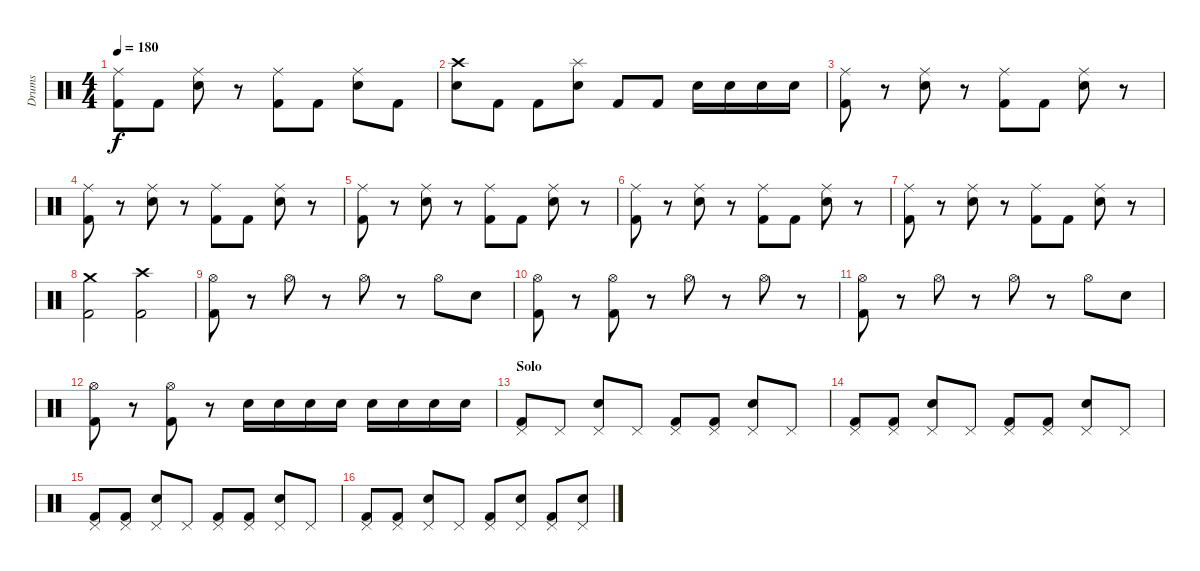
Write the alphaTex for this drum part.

\track ("Drums" "Drums") {instrument percussion}
\staff {score}
\articulation defaults
\ts (4 4)
\tempo 180
\clef neutral
\ks c
("Ride (middle)" "Kick (hit) 2").8{dy f} "Kick (hit) 2".8 ("Ride (middle)" "Snare (hit) 2").8 r.8 ("Ride (middle)" "Kick (hit) 2").8 "Kick (hit) 2".8 ("Ride (middle)" "Snare (hit) 2").8 "Kick (hit) 2".8 |
("Crash high (hit)" "Snare (hit) 2").8 "Kick (hit) 2".8 "Kick (hit) 2".8 ("Splash (hit)" "Snare (hit) 2").8 "Kick (hit) 2".8 "Kick (hit) 2".8 "Snare (hit) 2".16 "Snare (hit) 2".16 "Snare (hit) 2".16 "Snare (hit) 2".16 |
("Ride (middle)" "Kick (hit) 2").8 r.8 ("Ride (middle)" "Snare (hit) 2").8 r.8 ("Ride (middle)" "Kick (hit) 2").8 "Kick (hit) 2".8 ("Ride (middle)" "Snare (hit) 2").8 r.8 |
("Ride (middle)" "Kick (hit) 2").8 r.8 ("Ride (middle)" "Snare (hit) 2").8 r.8 ("Ride (middle)" "Kick (hit) 2").8 "Kick (hit) 2".8 ("Ride (middle)" "Snare (hit) 2").8 r.8 |
("Ride (middle)" "Kick (hit) 2").8 r.8 ("Ride (middle)" "Snare (hit) 2").8 r.8 ("Ride (middle)" "Kick (hit) 2").8 "Kick (hit) 2".8 ("Ride (middle)" "Snare (hit) 2").8 r.8 |
("Ride (middle)" "Kick (hit) 2").8 r.8 ("Ride (middle)" "Snare (hit) 2").8 r.8 ("Ride (middle)" "Kick (hit) 2").8 "Kick (hit) 2".8 ("Ride (middle)" "Snare (hit) 2").8 r.8 |
("Ride (middle)" "Kick (hit) 2").8 r.8 ("Ride (middle)" "Snare (hit) 2").8 r.8 ("Ride (middle)" "Kick (hit) 2").8 "Kick (hit) 2".8 ("Ride (middle)" "Snare (hit) 2").8 r.8 |
("Crash medium (hit)" "Kick (hit) 2").2 ("Crash high (hit)" "Kick (hit) 2").2 |
("Hi-Hat (open)" "Kick (hit) 2").8 r.8 "Hi-Hat (open)".8 r.8 "Hi-Hat (open)".8 r.8 "Hi-Hat (open)".8 "Snare (hit) 2".8 |
("Hi-Hat (open)" "Kick (hit) 2").8 r.8 ("Hi-Hat (open)" "Kick (hit) 2").8 r.8 "Hi-Hat (open)".8 r.8 "Hi-Hat (open)".8 r.8 |
("Hi-Hat (open)" "Kick (hit) 2").8 r.8 "Hi-Hat (open)".8 r.8 "Hi-Hat (open)".8 r.8 "Hi-Hat (open)".8 "Snare (hit) 2".8 |
("Hi-Hat (open)" "Kick (hit) 2").8 r.8 ("Hi-Hat (open)" "Kick (hit) 2").8 r.8 "Snare (hit) 2".16 "Snare (hit) 2".16 "Snare (hit) 2".16 "Snare (hit) 2".16 "Snare (hit) 2".16 "Snare (hit) 2".16 "Snare (hit) 2".16 "Snare (hit) 2".16 |
\section ("" "Solo")
("Pedal Hi-Hat (hit)" "Kick (hit) 2").8 "Pedal Hi-Hat (hit)".8 ("Pedal Hi-Hat (hit)" "Snare (hit) 2").8 "Pedal Hi-Hat (hit)".8 ("Pedal Hi-Hat (hit)" "Kick (hit) 2").8 ("Pedal Hi-Hat (hit)" "Kick (hit) 2").8 ("Pedal Hi-Hat (hit)" "Snare (hit) 2").8 "Pedal Hi-Hat (hit)".8 |
("Pedal Hi-Hat (hit)" "Kick (hit) 2").8 ("Pedal Hi-Hat (hit)" "Kick (hit) 2").8 ("Pedal Hi-Hat (hit)" "Snare (hit) 2").8 "Pedal Hi-Hat (hit)".8 ("Pedal Hi-Hat (hit)" "Kick (hit) 2").8 ("Pedal Hi-Hat (hit)" "Kick (hit) 2").8 ("Pedal Hi-Hat (hit)" "Snare (hit) 2").8 "Pedal Hi-Hat (hit)".8 |
("Pedal Hi-Hat (hit)" "Kick (hit) 2").8 ("Pedal Hi-Hat (hit)" "Kick (hit) 2").8 ("Pedal Hi-Hat (hit)" "Snare (hit) 2").8 "Pedal Hi-Hat (hit)".8 ("Pedal Hi-Hat (hit)" "Kick (hit) 2").8 ("Pedal Hi-Hat (hit)" "Kick (hit) 2").8 ("Pedal Hi-Hat (hit)" "Snare (hit) 2").8 "Pedal Hi-Hat (hit)".8 |
("Pedal Hi-Hat (hit)" "Kick (hit) 2").8 ("Pedal Hi-Hat (hit)" "Kick (hit) 2").8 ("Pedal Hi-Hat (hit)" "Snare (hit) 2").8 "Pedal Hi-Hat (hit)".8 ("Pedal Hi-Hat (hit)" "Kick (hit) 2").8 ("Pedal Hi-Hat (hit)" "Snare (hit) 2").8 ("Pedal Hi-Hat (hit)" "Kick (hit) 2").8 ("Pedal Hi-Hat (hit)" "Snare (hit) 2").8
